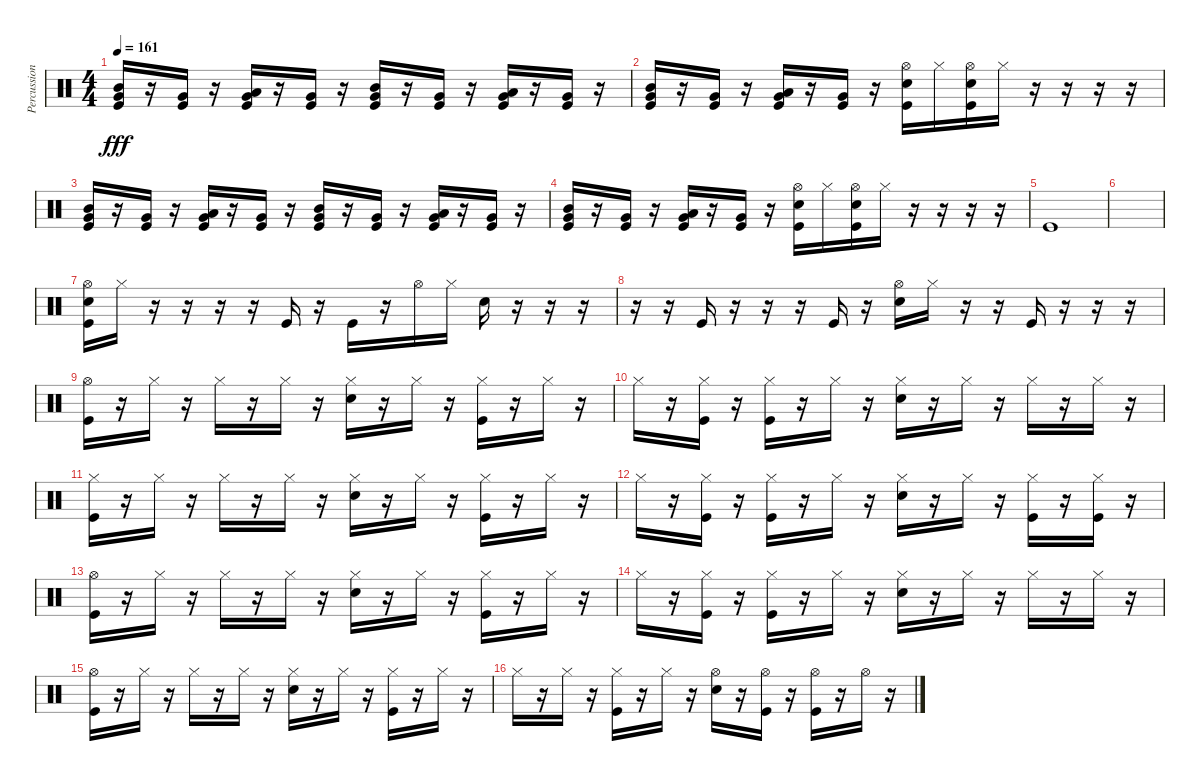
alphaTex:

\track ("Percussion" "Percussion") {instrument percussion}
\staff {score}
\articulation defaults
\ts (4 4)
\tempo 161
\clef neutral
\ks c
("Very Low Tom (hit)" "Mid Tom (hit)" "Kick (hit)").16{dy fff} r.16 ("Very Low Tom (hit)" "Kick (hit)").16 r.16 ("Very Low Tom (hit)" "Low Tom (hit)" "Kick (hit)").16 r.16 ("Very Low Tom (hit)" "Kick (hit)").16 r.16 ("Very Low Tom (hit)" "Mid Tom (hit)" "Kick (hit)").16 r.16 ("Very Low Tom (hit)" "Kick (hit)").16 r.16 ("Very Low Tom (hit)" "Low Tom (hit)" "Kick (hit)").16 r.16 ("Very Low Tom (hit)" "Kick (hit)").16 r.16 |
("Very Low Tom (hit)" "Mid Tom (hit)" "Kick (hit)").16 r.16 ("Very Low Tom (hit)" "Kick (hit)").16 r.16 ("Very Low Tom (hit)" "Low Tom (hit)" "Kick (hit)").16 r.16 ("Very Low Tom (hit)" "Kick (hit)").16 r.16 ("Hi-Hat (open)" "Electric Snare (hit)" "Kick (hit)").16 "Hi-Hat (closed)".16 ("Hi-Hat (open)" "Electric Snare (hit)" "Kick (hit)").16 "Hi-Hat (closed)".16 r.16 r.16 r.16 r.16 |
("Very Low Tom (hit)" "Mid Tom (hit)" "Kick (hit)").16 r.16 ("Very Low Tom (hit)" "Kick (hit)").16 r.16 ("Very Low Tom (hit)" "Low Tom (hit)" "Kick (hit)").16 r.16 ("Very Low Tom (hit)" "Kick (hit)").16 r.16 ("Very Low Tom (hit)" "Mid Tom (hit)" "Kick (hit)").16 r.16 ("Very Low Tom (hit)" "Kick (hit)").16 r.16 ("Very Low Tom (hit)" "Low Tom (hit)" "Kick (hit)").16 r.16 ("Very Low Tom (hit)" "Kick (hit)").16 r.16 |
("Very Low Tom (hit)" "Mid Tom (hit)" "Kick (hit)").16 r.16 ("Very Low Tom (hit)" "Kick (hit)").16 r.16 ("Very Low Tom (hit)" "Low Tom (hit)" "Kick (hit)").16 r.16 ("Very Low Tom (hit)" "Kick (hit)").16 r.16 ("Hi-Hat (open)" "Electric Snare (hit)" "Kick (hit)").16 "Hi-Hat (closed)".16 ("Hi-Hat (open)" "Electric Snare (hit)" "Kick (hit)").16 "Hi-Hat (closed)".16 r.16 r.16 r.16 r.16 |
"Kick (hit)".1 |
|
("Hi-Hat (open)" "Electric Snare (hit)" "Kick (hit)").16 "Hi-Hat (closed)".16 r.16 r.16 r.16 r.16 "Kick (hit)".16 r.16 "Kick (hit)".16 r.16 "Hi-Hat (open)".16 "Hi-Hat (closed)".16 "Electric Snare (hit)".16 r.16 r.16 r.16 |
r.16 r.16 "Kick (hit)".16 r.16 r.16 r.16 "Kick (hit)".16 r.16 ("Hi-Hat (open)" "Electric Snare (hit)").16 "Hi-Hat (closed)".16 r.16 r.16 "Kick (hit)".16 r.16 r.16 r.16 |
("Hi-Hat (open)" "Kick (hit)").16 r.16 "Hi-Hat (closed)".16 r.16 "Hi-Hat (closed)".16 r.16 "Hi-Hat (closed)".16 r.16 ("Hi-Hat (closed)" "Electric Snare (hit)").16 r.16 "Hi-Hat (closed)".16 r.16 ("Hi-Hat (closed)" "Kick (hit)").16 r.16 "Hi-Hat (closed)".16 r.16 |
"Hi-Hat (closed)".16 r.16 ("Hi-Hat (closed)" "Kick (hit)").16 r.16 ("Hi-Hat (closed)" "Kick (hit)").16 r.16 "Hi-Hat (closed)".16 r.16 ("Hi-Hat (closed)" "Electric Snare (hit)").16 r.16 "Hi-Hat (closed)".16 r.16 "Hi-Hat (closed)".16 r.16 "Hi-Hat (closed)".16 r.16 |
("Hi-Hat (closed)" "Kick (hit)").16 r.16 "Hi-Hat (closed)".16 r.16 "Hi-Hat (closed)".16 r.16 "Hi-Hat (closed)".16 r.16 ("Hi-Hat (closed)" "Electric Snare (hit)").16 r.16 "Hi-Hat (closed)".16 r.16 ("Hi-Hat (closed)" "Kick (hit)").16 r.16 "Hi-Hat (closed)".16 r.16 |
"Hi-Hat (closed)".16 r.16 ("Hi-Hat (closed)" "Kick (hit)").16 r.16 ("Hi-Hat (closed)" "Kick (hit)").16 r.16 "Hi-Hat (closed)".16 r.16 ("Hi-Hat (closed)" "Electric Snare (hit)").16 r.16 "Hi-Hat (closed)".16 r.16 ("Hi-Hat (closed)" "Kick (hit)").16 r.16 ("Hi-Hat (closed)" "Kick (hit)").16 r.16 |
("Hi-Hat (open)" "Kick (hit)").16 r.16 "Hi-Hat (closed)".16 r.16 "Hi-Hat (closed)".16 r.16 "Hi-Hat (closed)".16 r.16 ("Hi-Hat (closed)" "Electric Snare (hit)").16 r.16 "Hi-Hat (closed)".16 r.16 ("Hi-Hat (closed)" "Kick (hit)").16 r.16 "Hi-Hat (closed)".16 r.16 |
"Hi-Hat (closed)".16 r.16 ("Hi-Hat (closed)" "Kick (hit)").16 r.16 ("Hi-Hat (closed)" "Kick (hit)").16 r.16 "Hi-Hat (closed)".16 r.16 ("Hi-Hat (closed)" "Electric Snare (hit)").16 r.16 "Hi-Hat (closed)".16 r.16 "Hi-Hat (closed)".16 r.16 "Hi-Hat (closed)".16 r.16 |
("Hi-Hat (open)" "Kick (hit)").16 r.16 "Hi-Hat (closed)".16 r.16 "Hi-Hat (closed)".16 r.16 "Hi-Hat (closed)".16 r.16 ("Hi-Hat (closed)" "Electric Snare (hit)").16 r.16 "Hi-Hat (closed)".16 r.16 ("Hi-Hat (closed)" "Kick (hit)").16 r.16 "Hi-Hat (closed)".16 r.16 |
"Hi-Hat (closed)".16 r.16 "Hi-Hat (closed)".16 r.16 ("Hi-Hat (closed)" "Kick (hit)").16 r.16 "Hi-Hat (closed)".16 r.16 ("Hi-Hat (open)" "Electric Snare (hit)").16 r.16 ("Hi-Hat (open)" "Kick (hit)").16 r.16 ("Hi-Hat (open)" "Kick (hit)").16 r.16 "Hi-Hat (open)".16 r.16
